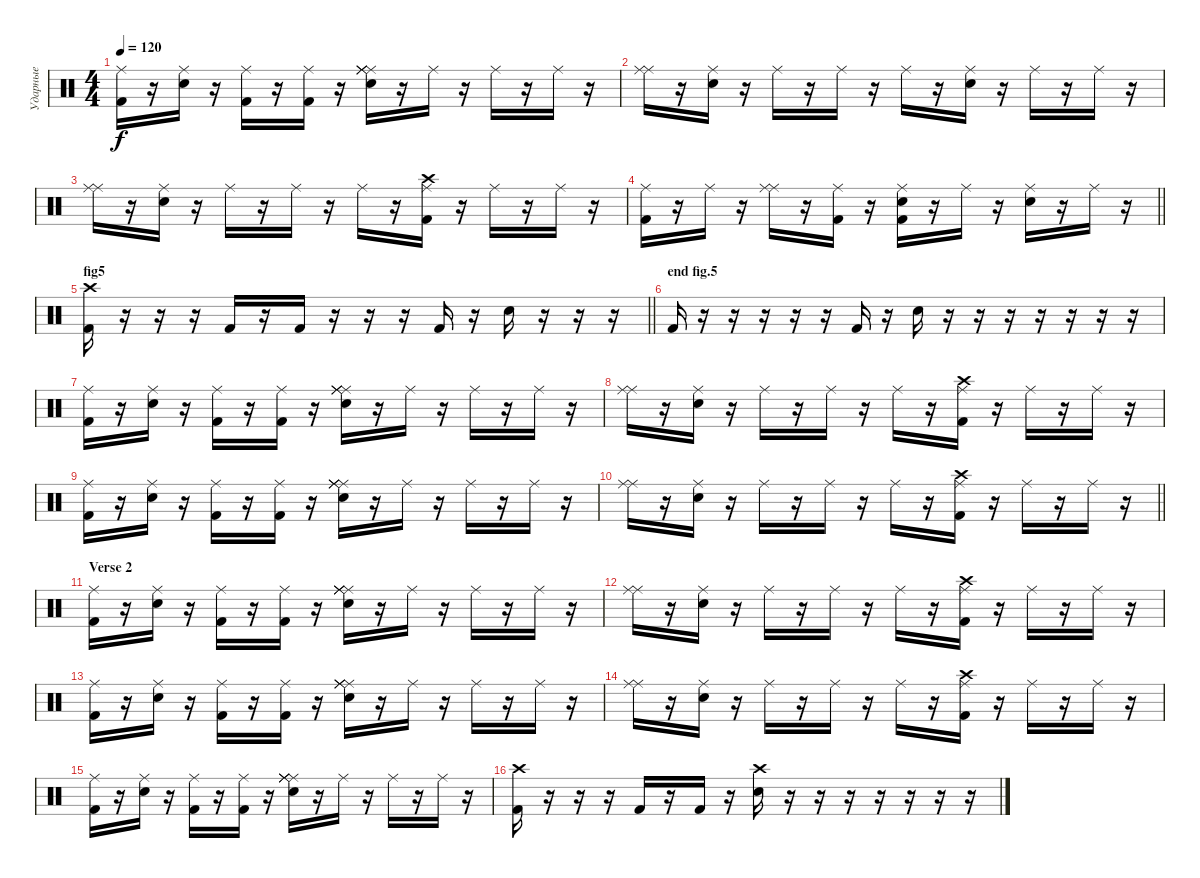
\track ("Ударные" "Ударные") {instrument percussion}
\staff {score}
\articulation defaults
\ts (4 4)
\tempo 120
\clef neutral
\ks c
("Ride (middle)" "Kick (hit) 2").16{dy f} r.16 ("Ride (middle)" "Snare (hit) 2").16 r.16 ("Ride (middle)" "Kick (hit) 2").16 r.16 ("Ride (middle)" "Kick (hit) 2").16 r.16 ("Ride (middle)" "Ride (middle)" "Ride (middle)" "Ride (middle)" "Snare (hit) 2").16 r.16 "Ride (middle)".16 r.16 "Ride (middle)".16 r.16 "Ride (middle)".16 r.16 |
("Ride (middle)" "Ride (middle)").16 r.16 ("Ride (middle)" "Snare (hit) 2").16 r.16 "Ride (middle)".16 r.16 "Ride (middle)".16 r.16 "Ride (middle)".16 r.16 ("Ride (middle)" "Snare (hit) 2").16 r.16 "Ride (middle)".16 r.16 "Ride (middle)".16 r.16 |
("Ride (middle)" "Ride (middle)").16 r.16 ("Ride (middle)" "Snare (hit) 2").16 r.16 "Ride (middle)".16 r.16 "Ride (middle)".16 r.16 "Ride (middle)".16 r.16 ("Ride (middle)" "Kick (hit) 2" "Crash high (hit)").16 r.16 "Ride (middle)".16 r.16 "Ride (middle)".16 r.16 |
\barLineRight lightlight
("Ride (middle)" "Kick (hit) 2").16 r.16 "Ride (middle)".16 r.16 ("Ride (middle)" "Ride (middle)").16 r.16 ("Ride (middle)" "Kick (hit) 2").16 r.16 ("Ride (middle)" "Kick (hit) 2" "Snare (hit) 2").16 r.16 "Ride (middle)".16 r.16 ("Ride (middle)" "Snare (hit) 2").16 r.16 "Ride (middle)".16 r.16 |
\section ("" "fig5")
\barLineRight lightlight
("Kick (hit) 2" "Crash high (hit)").16 r.16 r.16 r.16 "Kick (hit) 2".16 r.16 "Kick (hit) 2".16 r.16 r.16 r.16 "Kick (hit) 2".16 r.16 "Snare (hit) 2".16 r.16 r.16 r.16 |
\section ("" "end fig.5")
"Kick (hit) 2".16 r.16 r.16 r.16 r.16 r.16 "Kick (hit) 2".16 r.16 "Snare (hit) 2".16 r.16 r.16 r.16 r.16 r.16 r.16 r.16 |
("Ride (middle)" "Kick (hit) 2").16 r.16 ("Ride (middle)" "Snare (hit) 2").16 r.16 ("Ride (middle)" "Kick (hit) 2").16 r.16 ("Ride (middle)" "Kick (hit) 2").16 r.16 ("Ride (middle)" "Ride (middle)" "Ride (middle)" "Ride (middle)" "Snare (hit) 2").16 r.16 "Ride (middle)".16 r.16 "Ride (middle)".16 r.16 "Ride (middle)".16 r.16 |
("Ride (middle)" "Ride (middle)").16 r.16 ("Ride (middle)" "Snare (hit) 2").16 r.16 "Ride (middle)".16 r.16 "Ride (middle)".16 r.16 "Ride (middle)".16 r.16 ("Ride (middle)" "Kick (hit) 2" "Crash high (hit)").16 r.16 "Ride (middle)".16 r.16 "Ride (middle)".16 r.16 |
("Ride (middle)" "Kick (hit) 2").16 r.16 ("Ride (middle)" "Snare (hit) 2").16 r.16 ("Ride (middle)" "Kick (hit) 2").16 r.16 ("Ride (middle)" "Kick (hit) 2").16 r.16 ("Ride (middle)" "Ride (middle)" "Ride (middle)" "Ride (middle)" "Snare (hit) 2").16 r.16 "Ride (middle)".16 r.16 "Ride (middle)".16 r.16 "Ride (middle)".16 r.16 |
\barLineRight lightlight
("Ride (middle)" "Ride (middle)").16 r.16 ("Ride (middle)" "Snare (hit) 2").16 r.16 "Ride (middle)".16 r.16 "Ride (middle)".16 r.16 "Ride (middle)".16 r.16 ("Ride (middle)" "Kick (hit) 2" "Crash high (hit)").16 r.16 "Ride (middle)".16 r.16 "Ride (middle)".16 r.16 |
\section ("" "Verse 2")
("Ride (middle)" "Kick (hit) 2").16 r.16 ("Ride (middle)" "Snare (hit) 2").16 r.16 ("Ride (middle)" "Kick (hit) 2").16 r.16 ("Ride (middle)" "Kick (hit) 2").16 r.16 ("Ride (middle)" "Ride (middle)" "Ride (middle)" "Ride (middle)" "Snare (hit) 2").16 r.16 "Ride (middle)".16 r.16 "Ride (middle)".16 r.16 "Ride (middle)".16 r.16 |
("Ride (middle)" "Ride (middle)").16 r.16 ("Ride (middle)" "Snare (hit) 2").16 r.16 "Ride (middle)".16 r.16 "Ride (middle)".16 r.16 "Ride (middle)".16 r.16 ("Ride (middle)" "Kick (hit) 2" "Crash high (hit)").16 r.16 "Ride (middle)".16 r.16 "Ride (middle)".16 r.16 |
("Ride (middle)" "Kick (hit) 2").16 r.16 ("Ride (middle)" "Snare (hit) 2").16 r.16 ("Ride (middle)" "Kick (hit) 2").16 r.16 ("Ride (middle)" "Kick (hit) 2").16 r.16 ("Ride (middle)" "Ride (middle)" "Ride (middle)" "Ride (middle)" "Snare (hit) 2").16 r.16 "Ride (middle)".16 r.16 "Ride (middle)".16 r.16 "Ride (middle)".16 r.16 |
("Ride (middle)" "Ride (middle)").16 r.16 ("Ride (middle)" "Snare (hit) 2").16 r.16 "Ride (middle)".16 r.16 "Ride (middle)".16 r.16 "Ride (middle)".16 r.16 ("Ride (middle)" "Kick (hit) 2" "Crash high (hit)").16 r.16 "Ride (middle)".16 r.16 "Ride (middle)".16 r.16 |
("Ride (middle)" "Kick (hit) 2").16 r.16 ("Ride (middle)" "Snare (hit) 2").16 r.16 ("Ride (middle)" "Kick (hit) 2").16 r.16 ("Ride (middle)" "Kick (hit) 2").16 r.16 ("Ride (middle)" "Ride (middle)" "Ride (middle)" "Ride (middle)" "Snare (hit) 2").16 r.16 "Ride (middle)".16 r.16 "Ride (middle)".16 r.16 "Ride (middle)".16 r.16 |
("Kick (hit) 2" "Crash high (hit)").16 r.16 r.16 r.16 "Kick (hit) 2".16 r.16 "Kick (hit) 2".16 r.16 ("Snare (hit) 2" "Crash high (hit)").16 r.16 r.16 r.16 r.16 r.16 r.16 r.16
